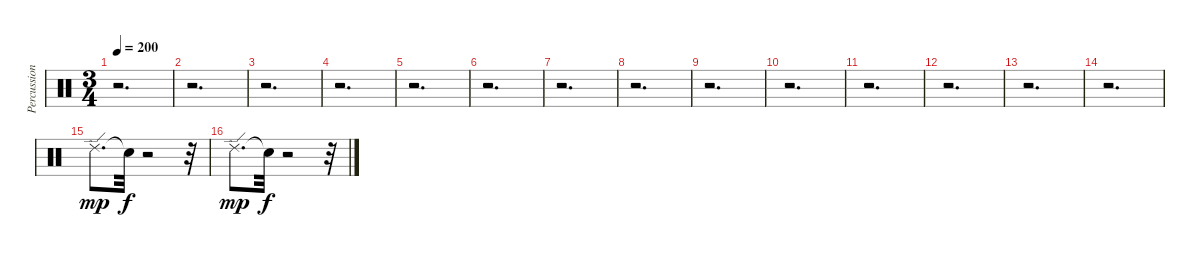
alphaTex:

\track ("Percussion." "Percussion") {instrument percussion}
\staff {score}
\articulation defaults
\ts (3 4)
\tempo 200
\clef neutral
\ks c
r.2{d dy f} |
r.2{d} |
r.2{d} |
r.2{d} |
r.2{d} |
r.2{d} |
r.2{d} |
r.2{d} |
r.2{d} |
r.2{d} |
r.2{d} |
r.2{d} |
r.2{d} |
r.2{d} |
"Ride (edge) 2".8{d dy mp} "Snare (hit)"{t}.32{dy f} r.2 r.32 |
"Ride (edge) 2".8{d dy mp} "Snare (hit)"{t}.32{dy f} r.2 r.32
